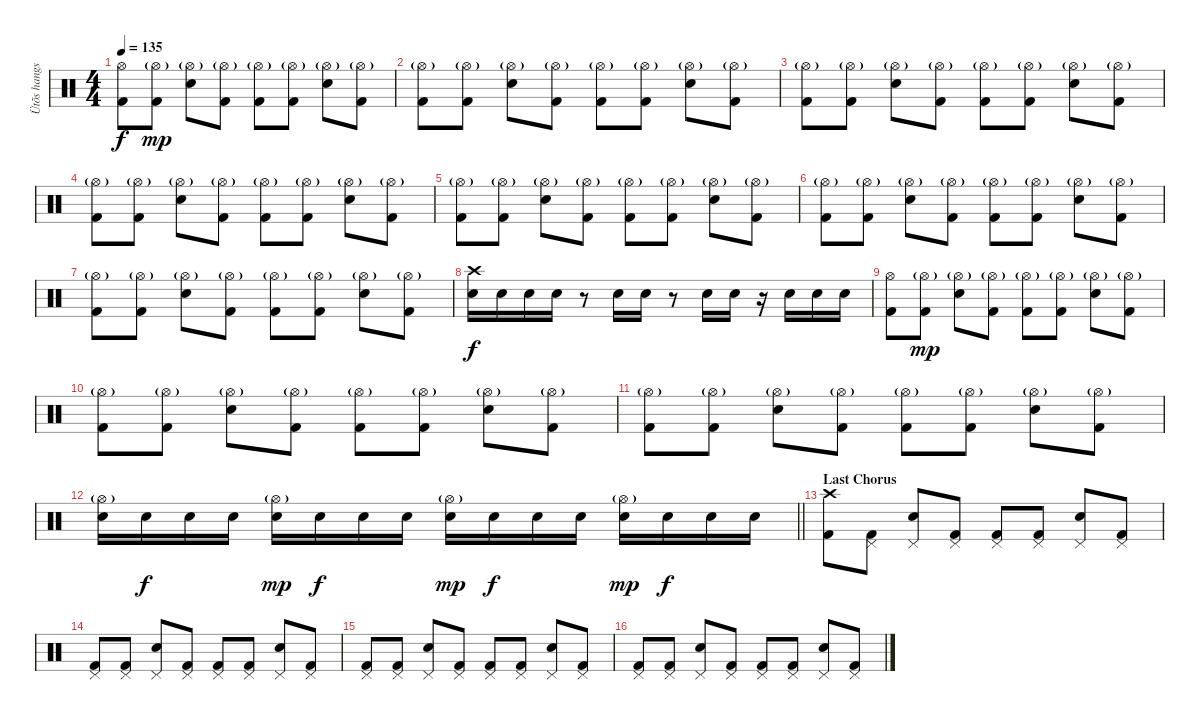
\track ("Ütõs hangszer" "Ütõs hangs") {instrument percussion}
\staff {score}
\articulation defaults
\ts (4 4)
\tempo 135
\clef neutral
\ks c
("Hi-Hat (open)" "Kick (hit) 2").8{dy f} ("Hi-Hat (open)"{g} "Kick (hit) 2").8{dy mp} ("Hi-Hat (open)"{g} "Electric Snare (hit)").8 ("Hi-Hat (open)"{g} "Kick (hit) 2").8 ("Hi-Hat (open)"{g} "Kick (hit) 2").8 ("Hi-Hat (open)"{g} "Kick (hit) 2").8 ("Hi-Hat (open)"{g} "Electric Snare (hit)").8 ("Hi-Hat (open)"{g} "Kick (hit) 2").8 |
("Hi-Hat (open)"{g} "Kick (hit) 2").8 ("Hi-Hat (open)"{g} "Kick (hit) 2").8 ("Hi-Hat (open)"{g} "Electric Snare (hit)").8 ("Hi-Hat (open)"{g} "Kick (hit) 2").8 ("Hi-Hat (open)"{g} "Kick (hit) 2").8 ("Hi-Hat (open)"{g} "Kick (hit) 2").8 ("Hi-Hat (open)"{g} "Electric Snare (hit)").8 ("Hi-Hat (open)"{g} "Kick (hit) 2").8 |
("Hi-Hat (open)"{g} "Kick (hit) 2").8 ("Hi-Hat (open)"{g} "Kick (hit) 2").8 ("Hi-Hat (open)"{g} "Electric Snare (hit)").8 ("Hi-Hat (open)"{g} "Kick (hit) 2").8 ("Hi-Hat (open)"{g} "Kick (hit) 2").8 ("Hi-Hat (open)"{g} "Kick (hit) 2").8 ("Hi-Hat (open)"{g} "Electric Snare (hit)").8 ("Hi-Hat (open)"{g} "Kick (hit) 2").8 |
("Hi-Hat (open)"{g} "Kick (hit) 2").8 ("Hi-Hat (open)"{g} "Kick (hit) 2").8 ("Hi-Hat (open)"{g} "Electric Snare (hit)").8 ("Hi-Hat (open)"{g} "Kick (hit) 2").8 ("Hi-Hat (open)"{g} "Kick (hit) 2").8 ("Hi-Hat (open)"{g} "Kick (hit) 2").8 ("Hi-Hat (open)"{g} "Electric Snare (hit)").8 ("Hi-Hat (open)"{g} "Kick (hit) 2").8 |
("Hi-Hat (open)"{g} "Kick (hit) 2").8 ("Hi-Hat (open)"{g} "Kick (hit) 2").8 ("Hi-Hat (open)"{g} "Electric Snare (hit)").8 ("Hi-Hat (open)"{g} "Kick (hit) 2").8 ("Hi-Hat (open)"{g} "Kick (hit) 2").8 ("Hi-Hat (open)"{g} "Kick (hit) 2").8 ("Hi-Hat (open)"{g} "Electric Snare (hit)").8 ("Hi-Hat (open)"{g} "Kick (hit) 2").8 |
("Hi-Hat (open)"{g} "Kick (hit) 2").8 ("Hi-Hat (open)"{g} "Kick (hit) 2").8 ("Hi-Hat (open)"{g} "Electric Snare (hit)").8 ("Hi-Hat (open)"{g} "Kick (hit) 2").8 ("Hi-Hat (open)"{g} "Kick (hit) 2").8 ("Hi-Hat (open)"{g} "Kick (hit) 2").8 ("Hi-Hat (open)"{g} "Electric Snare (hit)").8 ("Hi-Hat (open)"{g} "Kick (hit) 2").8 |
("Hi-Hat (open)"{g} "Kick (hit) 2").8 ("Hi-Hat (open)"{g} "Kick (hit) 2").8 ("Hi-Hat (open)"{g} "Electric Snare (hit)").8 ("Hi-Hat (open)"{g} "Kick (hit) 2").8 ("Hi-Hat (open)"{g} "Kick (hit) 2").8 ("Hi-Hat (open)"{g} "Kick (hit) 2").8 ("Hi-Hat (open)"{g} "Electric Snare (hit)").8 ("Hi-Hat (open)"{g} "Kick (hit) 2").8 |
("Crash high (hit)" "Electric Snare (hit)").16{dy f} "Electric Snare (hit)".16 "Electric Snare (hit)".16 "Electric Snare (hit)".16 r.8 "Electric Snare (hit)".16 "Electric Snare (hit)".16 r.8 "Electric Snare (hit)".16 "Electric Snare (hit)".16 r.16 "Electric Snare (hit)".16 "Electric Snare (hit)".16 "Electric Snare (hit)".16 |
("Hi-Hat (open)" "Kick (hit) 2").8 ("Hi-Hat (open)"{g} "Kick (hit) 2").8{dy mp} ("Hi-Hat (open)"{g} "Electric Snare (hit)").8 ("Hi-Hat (open)"{g} "Kick (hit) 2").8 ("Hi-Hat (open)"{g} "Kick (hit) 2").8 ("Hi-Hat (open)"{g} "Kick (hit) 2").8 ("Hi-Hat (open)"{g} "Electric Snare (hit)").8 ("Hi-Hat (open)"{g} "Kick (hit) 2").8 |
("Hi-Hat (open)"{g} "Kick (hit) 2").8 ("Hi-Hat (open)"{g} "Kick (hit) 2").8 ("Hi-Hat (open)"{g} "Electric Snare (hit)").8 ("Hi-Hat (open)"{g} "Kick (hit) 2").8 ("Hi-Hat (open)"{g} "Kick (hit) 2").8 ("Hi-Hat (open)"{g} "Kick (hit) 2").8 ("Hi-Hat (open)"{g} "Electric Snare (hit)").8 ("Hi-Hat (open)"{g} "Kick (hit) 2").8 |
("Hi-Hat (open)"{g} "Kick (hit) 2").8 ("Hi-Hat (open)"{g} "Kick (hit) 2").8 ("Hi-Hat (open)"{g} "Electric Snare (hit)").8 ("Hi-Hat (open)"{g} "Kick (hit) 2").8 ("Hi-Hat (open)"{g} "Kick (hit) 2").8 ("Hi-Hat (open)"{g} "Kick (hit) 2").8 ("Hi-Hat (open)"{g} "Electric Snare (hit)").8 ("Hi-Hat (open)"{g} "Kick (hit) 2").8 |
\barLineRight lightlight
("Hi-Hat (open)"{g} "Electric Snare (hit)").16 "Electric Snare (hit)".16{dy f} "Electric Snare (hit)".16 "Electric Snare (hit)".16 ("Hi-Hat (open)"{g} "Electric Snare (hit)").16{dy mp} "Electric Snare (hit)".16{dy f} "Electric Snare (hit)".16 "Electric Snare (hit)".16 ("Hi-Hat (open)"{g} "Electric Snare (hit)").16{dy mp} "Electric Snare (hit)".16{dy f} "Electric Snare (hit)".16 "Electric Snare (hit)".16 ("Hi-Hat (open)"{g} "Electric Snare (hit)").16{dy mp} "Electric Snare (hit)".16{dy f} "Electric Snare (hit)".16 "Electric Snare (hit)".16 |
\section ("" "Last Chorus")
("Crash high (hit)" "Kick (hit) 2").8 ("Pedal Hi-Hat (hit)" "Kick (hit) 2").8 ("Pedal Hi-Hat (hit)" "Electric Snare (hit)").8 ("Pedal Hi-Hat (hit)" "Kick (hit) 2").8 ("Pedal Hi-Hat (hit)" "Kick (hit) 2").8 ("Pedal Hi-Hat (hit)" "Kick (hit) 2").8 ("Pedal Hi-Hat (hit)" "Electric Snare (hit)").8 ("Pedal Hi-Hat (hit)" "Kick (hit) 2").8 |
("Pedal Hi-Hat (hit)" "Kick (hit) 2").8 ("Pedal Hi-Hat (hit)" "Kick (hit) 2").8 ("Pedal Hi-Hat (hit)" "Electric Snare (hit)").8 ("Pedal Hi-Hat (hit)" "Kick (hit) 2").8 ("Pedal Hi-Hat (hit)" "Kick (hit) 2").8 ("Pedal Hi-Hat (hit)" "Kick (hit) 2").8 ("Pedal Hi-Hat (hit)" "Electric Snare (hit)").8 ("Pedal Hi-Hat (hit)" "Kick (hit) 2").8 |
("Pedal Hi-Hat (hit)" "Kick (hit) 2").8 ("Pedal Hi-Hat (hit)" "Kick (hit) 2").8 ("Pedal Hi-Hat (hit)" "Electric Snare (hit)").8 ("Pedal Hi-Hat (hit)" "Kick (hit) 2").8 ("Pedal Hi-Hat (hit)" "Kick (hit) 2").8 ("Pedal Hi-Hat (hit)" "Kick (hit) 2").8 ("Pedal Hi-Hat (hit)" "Electric Snare (hit)").8 ("Pedal Hi-Hat (hit)" "Kick (hit) 2").8 |
("Pedal Hi-Hat (hit)" "Kick (hit) 2").8 ("Pedal Hi-Hat (hit)" "Kick (hit) 2").8 ("Pedal Hi-Hat (hit)" "Electric Snare (hit)").8 ("Pedal Hi-Hat (hit)" "Kick (hit) 2").8 ("Pedal Hi-Hat (hit)" "Kick (hit) 2").8 ("Pedal Hi-Hat (hit)" "Kick (hit) 2").8 ("Pedal Hi-Hat (hit)" "Electric Snare (hit)").8 ("Pedal Hi-Hat (hit)" "Kick (hit) 2").8
